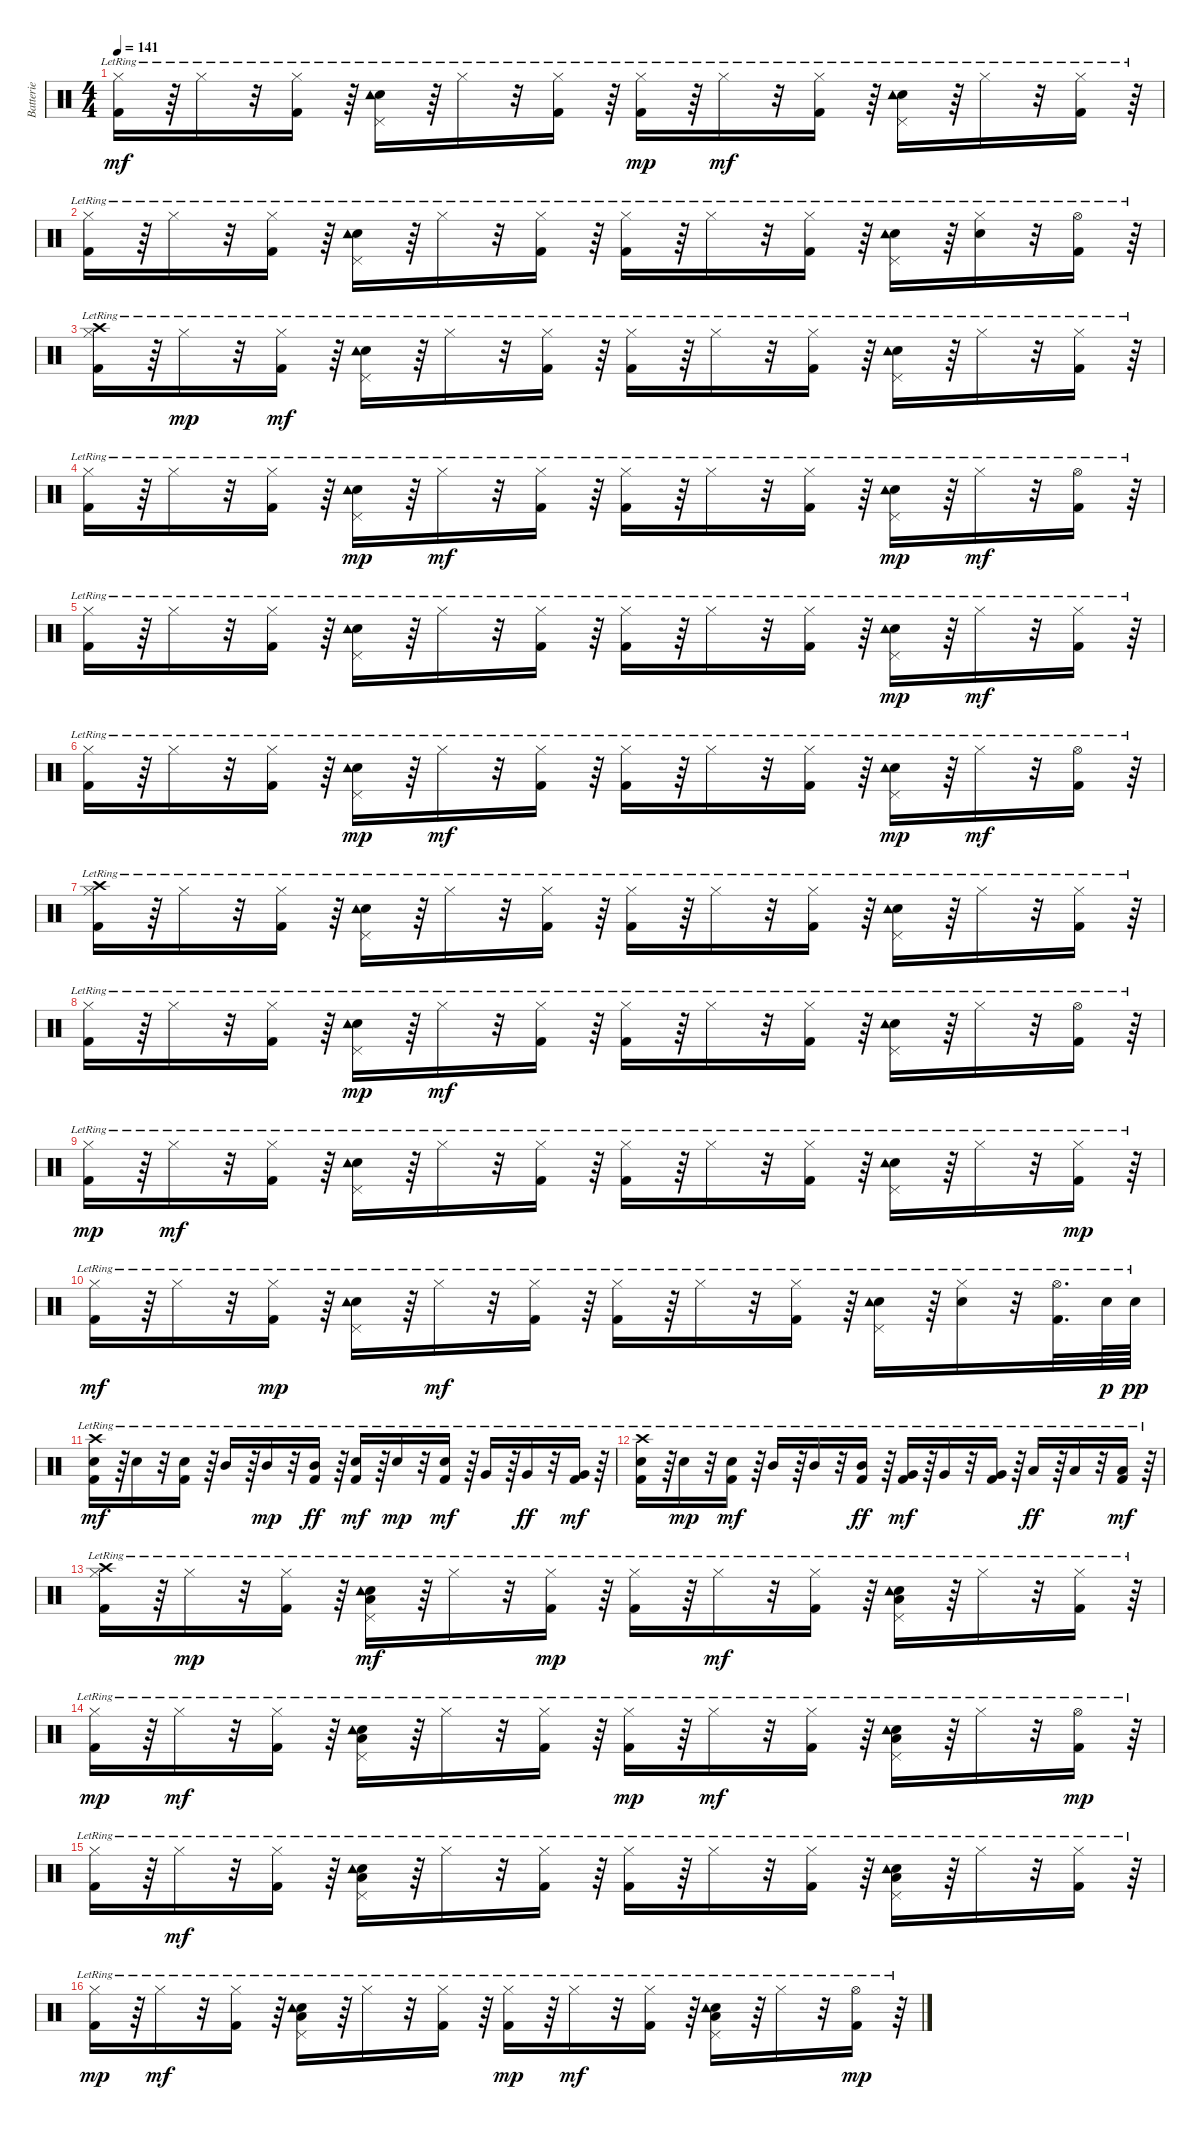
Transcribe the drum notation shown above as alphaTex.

\track ("Batterie" "Batterie") {instrument percussion}
\staff {score}
\articulation defaults
\ts (4 4)
\tempo 141
\clef neutral
\ks c
("Hi-Hat (closed)"{lr} "Kick (hit) 2"{lr}).16{dy mf} r.64 "Hi-Hat (closed)"{lr}.16 r.32 ("Hi-Hat (closed)"{lr} "Kick (hit) 2"{lr}).16 r.64 ("Pedal Hi-Hat (hit)"{lr} "Snare (hit) 2"{lr} "Tambourine (hit)"{lr}).16 r.64 "Hi-Hat (closed)"{lr}.16 r.32 ("Hi-Hat (closed)"{lr} "Kick (hit) 2"{lr}).16 r.64 ("Hi-Hat (closed)"{lr} "Kick (hit) 2"{lr}).16{dy mp} r.64 "Hi-Hat (closed)"{lr}.16{dy mf} r.32 ("Hi-Hat (closed)"{lr} "Kick (hit) 2"{lr}).16 r.64 ("Pedal Hi-Hat (hit)"{lr} "Snare (hit) 2"{lr} "Tambourine (hit)"{lr}).16 r.64 "Hi-Hat (closed)"{lr}.16 r.32 ("Hi-Hat (closed)"{lr} "Kick (hit) 2"{lr}).16 r.64 |
("Hi-Hat (closed)"{lr} "Kick (hit) 2"{lr}).16 r.64 "Hi-Hat (closed)"{lr}.16 r.32 ("Hi-Hat (closed)"{lr} "Kick (hit) 2"{lr}).16 r.64 ("Pedal Hi-Hat (hit)"{lr} "Snare (hit) 2"{lr} "Tambourine (hit)"{lr}).16 r.64 "Hi-Hat (closed)"{lr}.16 r.32 ("Hi-Hat (closed)"{lr} "Kick (hit) 2"{lr}).16 r.64 ("Hi-Hat (closed)"{lr} "Kick (hit) 2"{lr}).16 r.64 "Hi-Hat (closed)"{lr}.16 r.32 ("Hi-Hat (closed)"{lr} "Kick (hit) 2"{lr}).16 r.64 ("Pedal Hi-Hat (hit)"{lr} "Snare (hit) 2"{lr} "Tambourine (hit)"{lr}).16 r.64 ("Hi-Hat (closed)"{lr} "Snare (hit) 2"{lr}).16 r.32 ("Hi-Hat (open)"{lr} "Kick (hit) 2"{lr}).16 r.64 |
("Hi-Hat (closed)"{lr} "Crash high (hit)"{lr} "Kick (hit) 2"{lr}).16 r.64 "Hi-Hat (closed)"{lr}.16{dy mp} r.32 ("Hi-Hat (closed)"{lr} "Kick (hit) 2"{lr}).16{dy mf} r.64 ("Pedal Hi-Hat (hit)"{lr} "Snare (hit) 2"{lr} "Tambourine (hit)"{lr}).16 r.64 "Hi-Hat (closed)"{lr}.16 r.32 ("Hi-Hat (closed)"{lr} "Kick (hit) 2"{lr}).16 r.64 ("Hi-Hat (closed)"{lr} "Kick (hit) 2"{lr}).16 r.64 "Hi-Hat (closed)"{lr}.16 r.32 ("Hi-Hat (closed)"{lr} "Kick (hit) 2"{lr}).16 r.64 ("Pedal Hi-Hat (hit)"{lr} "Snare (hit) 2"{lr} "Tambourine (hit)"{lr}).16 r.64 "Hi-Hat (closed)"{lr}.16 r.32 ("Hi-Hat (closed)"{lr} "Kick (hit) 2"{lr}).16 r.64 |
("Hi-Hat (closed)"{lr} "Kick (hit) 2"{lr}).16 r.64 "Hi-Hat (closed)"{lr}.16 r.32 ("Hi-Hat (closed)"{lr} "Kick (hit) 2"{lr}).16 r.64 ("Pedal Hi-Hat (hit)"{lr} "Snare (hit) 2"{lr} "Tambourine (hit)"{lr}).16{dy mp} r.64 "Hi-Hat (closed)"{lr}.16{dy mf} r.32 ("Hi-Hat (closed)"{lr} "Kick (hit) 2"{lr}).16 r.64 ("Hi-Hat (closed)"{lr} "Kick (hit) 2"{lr}).16 r.64 "Hi-Hat (closed)"{lr}.16 r.32 ("Hi-Hat (closed)"{lr} "Kick (hit) 2"{lr}).16 r.64 ("Pedal Hi-Hat (hit)"{lr} "Snare (hit) 2"{lr} "Tambourine (hit)"{lr}).16{dy mp} r.64 "Hi-Hat (closed)"{lr}.16{dy mf} r.32 ("Hi-Hat (open)"{lr} "Kick (hit) 2"{lr}).16 r.64 |
("Hi-Hat (closed)"{lr} "Kick (hit) 2"{lr}).16 r.64 "Hi-Hat (closed)"{lr}.16 r.32 ("Hi-Hat (closed)"{lr} "Kick (hit) 2"{lr}).16 r.64 ("Pedal Hi-Hat (hit)"{lr} "Snare (hit) 2"{lr} "Tambourine (hit)"{lr}).16 r.64 "Hi-Hat (closed)"{lr}.16 r.32 ("Hi-Hat (closed)"{lr} "Kick (hit) 2"{lr}).16 r.64 ("Hi-Hat (closed)"{lr} "Kick (hit) 2"{lr}).16 r.64 "Hi-Hat (closed)"{lr}.16 r.32 ("Hi-Hat (closed)"{lr} "Kick (hit) 2"{lr}).16 r.64 ("Pedal Hi-Hat (hit)"{lr} "Snare (hit) 2"{lr} "Tambourine (hit)"{lr}).16{dy mp} r.64 "Hi-Hat (closed)"{lr}.16{dy mf} r.32 ("Hi-Hat (closed)"{lr} "Kick (hit) 2"{lr}).16 r.64 |
("Hi-Hat (closed)"{lr} "Kick (hit) 2"{lr}).16 r.64 "Hi-Hat (closed)"{lr}.16 r.32 ("Hi-Hat (closed)"{lr} "Kick (hit) 2"{lr}).16 r.64 ("Pedal Hi-Hat (hit)"{lr} "Snare (hit) 2"{lr} "Tambourine (hit)"{lr}).16{dy mp} r.64 "Hi-Hat (closed)"{lr}.16{dy mf} r.32 ("Hi-Hat (closed)"{lr} "Kick (hit) 2"{lr}).16 r.64 ("Hi-Hat (closed)"{lr} "Kick (hit) 2"{lr}).16 r.64 "Hi-Hat (closed)"{lr}.16 r.32 ("Hi-Hat (closed)"{lr} "Kick (hit) 2"{lr}).16 r.64 ("Pedal Hi-Hat (hit)"{lr} "Snare (hit) 2"{lr} "Tambourine (hit)"{lr}).16{dy mp} r.64 "Hi-Hat (closed)"{lr}.16{dy mf} r.32 ("Hi-Hat (open)"{lr} "Kick (hit) 2"{lr}).16 r.64 |
("Hi-Hat (closed)"{lr} "Crash high (hit)"{lr} "Kick (hit) 2"{lr}).16 r.64 "Hi-Hat (closed)"{lr}.16 r.32 ("Hi-Hat (closed)"{lr} "Kick (hit) 2"{lr}).16 r.64 ("Pedal Hi-Hat (hit)"{lr} "Snare (hit) 2"{lr} "Tambourine (hit)"{lr}).16 r.64 "Hi-Hat (closed)"{lr}.16 r.32 ("Hi-Hat (closed)"{lr} "Kick (hit) 2"{lr}).16 r.64 ("Hi-Hat (closed)"{lr} "Kick (hit) 2"{lr}).16 r.64 "Hi-Hat (closed)"{lr}.16 r.32 ("Hi-Hat (closed)"{lr} "Kick (hit) 2"{lr}).16 r.64 ("Pedal Hi-Hat (hit)"{lr} "Snare (hit) 2"{lr} "Tambourine (hit)"{lr}).16 r.64 "Hi-Hat (closed)"{lr}.16 r.32 ("Hi-Hat (closed)"{lr} "Kick (hit) 2"{lr}).16 r.64 |
("Hi-Hat (closed)"{lr} "Kick (hit) 2"{lr}).16 r.64 "Hi-Hat (closed)"{lr}.16 r.32 ("Hi-Hat (closed)"{lr} "Kick (hit) 2"{lr}).16 r.64 ("Pedal Hi-Hat (hit)"{lr} "Snare (hit) 2"{lr} "Tambourine (hit)"{lr}).16{dy mp} r.64 "Hi-Hat (closed)"{lr}.16{dy mf} r.32 ("Hi-Hat (closed)"{lr} "Kick (hit) 2"{lr}).16 r.64 ("Hi-Hat (closed)"{lr} "Kick (hit) 2"{lr}).16 r.64 "Hi-Hat (closed)"{lr}.16 r.32 ("Hi-Hat (closed)"{lr} "Kick (hit) 2"{lr}).16 r.64 ("Pedal Hi-Hat (hit)"{lr} "Snare (hit) 2"{lr} "Tambourine (hit)"{lr}).16 r.64 "Hi-Hat (closed)"{lr}.16 r.32 ("Hi-Hat (open)"{lr} "Kick (hit) 2"{lr}).16 r.64 |
("Hi-Hat (closed)"{lr} "Kick (hit) 2"{lr}).16{dy mp} r.64 "Hi-Hat (closed)"{lr}.16{dy mf} r.32 ("Hi-Hat (closed)"{lr} "Kick (hit) 2"{lr}).16 r.64 ("Pedal Hi-Hat (hit)"{lr} "Snare (hit) 2"{lr} "Tambourine (hit)"{lr}).16 r.64 "Hi-Hat (closed)"{lr}.16 r.32 ("Hi-Hat (closed)"{lr} "Kick (hit) 2"{lr}).16 r.64 ("Hi-Hat (closed)"{lr} "Kick (hit) 2"{lr}).16 r.64 "Hi-Hat (closed)"{lr}.16 r.32 ("Hi-Hat (closed)"{lr} "Kick (hit) 2"{lr}).16 r.64 ("Pedal Hi-Hat (hit)"{lr} "Snare (hit) 2"{lr} "Tambourine (hit)"{lr}).16 r.64 "Hi-Hat (closed)"{lr}.16 r.32 ("Hi-Hat (closed)"{lr} "Kick (hit) 2"{lr}).16{dy mp} r.64 |
("Hi-Hat (closed)"{lr} "Kick (hit) 2"{lr}).16{dy mf} r.64 "Hi-Hat (closed)"{lr}.16 r.32 ("Hi-Hat (closed)"{lr} "Kick (hit) 2"{lr}).16{dy mp} r.64 ("Pedal Hi-Hat (hit)"{lr} "Snare (hit) 2"{lr} "Tambourine (hit)"{lr}).16 r.64 "Hi-Hat (closed)"{lr}.16{dy mf} r.32 ("Hi-Hat (closed)"{lr} "Kick (hit) 2"{lr}).16 r.64 ("Hi-Hat (closed)"{lr} "Kick (hit) 2"{lr}).16 r.64 "Hi-Hat (closed)"{lr}.16 r.32 ("Hi-Hat (closed)"{lr} "Kick (hit) 2"{lr}).16 r.64 ("Pedal Hi-Hat (hit)"{lr} "Snare (hit) 2"{lr} "Tambourine (hit)"{lr}).16 r.64 ("Hi-Hat (closed)"{lr} "Snare (hit) 2"{lr}).16 r.32 ("Hi-Hat (open)"{lr} "Kick (hit) 2"{lr}).32{d} "Snare (hit) 2"{lr}.64{dy p} "Snare (hit) 2"{lr}.64{dy pp} |
("Crash high (hit)"{lr} "Snare (hit) 2"{lr} "Kick (hit) 2"{lr}).16{dy mf} r.64 "Snare (hit) 2"{lr}.16 r.32 ("Snare (hit) 2"{lr} "Kick (hit) 2"{lr}).16 r.64 "Mid Tom (hit)"{lr}.16 r.64 "Mid Tom (hit)"{lr}.16{dy mp} r.32 ("Kick (hit) 2"{lr} "Mid Tom (hit)"{lr}).16{dy ff} r.64 ("Snare (hit) 2"{lr} "Kick (hit) 2"{lr}).16{dy mf} r.64 "Snare (hit) 2"{lr}.16{dy mp} r.32 ("Snare (hit) 2"{lr} "Kick (hit) 2"{lr}).16{dy mf} r.64 "Very Low Tom (hit)"{lr}.16 r.64 "Very Low Tom (hit)"{lr}.16{dy ff} r.32 ("Very Low Tom (hit)"{lr} "Kick (hit) 2"{lr}).16{dy mf} r.64 |
("Crash high (hit)"{lr} "Snare (hit) 2"{lr} "Kick (hit) 2"{lr}).16 r.64 "Snare (hit) 2"{lr}.16{dy mp} r.32 ("Snare (hit) 2"{lr} "Kick (hit) 2"{lr}).16{dy mf} r.64 "Mid Tom (hit)"{lr}.16 r.64 "Mid Tom (hit)"{lr}.16 r.32 ("Kick (hit) 2"{lr} "Mid Tom (hit)"{lr}).16{dy ff} r.64 ("Very Low Tom (hit)"{lr} "Kick (hit) 2"{lr}).16{dy mf} r.64 "Very Low Tom (hit)"{lr}.16 r.32 ("Very Low Tom (hit)"{lr} "Kick (hit) 2"{lr}).16 r.64 "Low Floor Tom (hit)"{lr}.16{dy ff} r.64 "Low Floor Tom (hit)"{lr}.16 r.32 ("Kick (hit) 2"{lr} "Low Floor Tom (hit)"{lr}).16{dy mf} r.64 |
("Hi-Hat (closed)"{lr} "Crash high (hit)"{lr} "Kick (hit) 2"{lr}).16 r.64 "Hi-Hat (closed)"{lr}.16{dy mp} r.32 ("Hi-Hat (closed)"{lr} "Kick (hit) 2"{lr}).16 r.64 ("Pedal Hi-Hat (hit)"{lr} "Snare (hit) 2"{lr} "Low Floor Tom (hit)"{lr} "Tambourine (hit)"{lr}).16{dy mf} r.64 "Hi-Hat (closed)"{lr}.16 r.32 ("Hi-Hat (closed)"{lr} "Kick (hit) 2"{lr}).16{dy mp} r.64 ("Hi-Hat (closed)"{lr} "Kick (hit) 2"{lr}).16 r.64 "Hi-Hat (closed)"{lr}.16{dy mf} r.32 ("Hi-Hat (closed)"{lr} "Kick (hit) 2"{lr}).16 r.64 ("Pedal Hi-Hat (hit)"{lr} "Snare (hit) 2"{lr} "Low Floor Tom (hit)"{lr} "Tambourine (hit)"{lr}).16 r.64 "Hi-Hat (closed)"{lr}.16 r.32 ("Hi-Hat (closed)"{lr} "Kick (hit) 2"{lr}).16 r.64 |
("Hi-Hat (closed)"{lr} "Kick (hit) 2"{lr}).16{dy mp} r.64 "Hi-Hat (closed)"{lr}.16{dy mf} r.32 ("Hi-Hat (closed)"{lr} "Kick (hit) 2"{lr}).16 r.64 ("Pedal Hi-Hat (hit)"{lr} "Snare (hit) 2"{lr} "Low Floor Tom (hit)"{lr} "Tambourine (hit)"{lr}).16 r.64 "Hi-Hat (closed)"{lr}.16 r.32 ("Hi-Hat (closed)"{lr} "Kick (hit) 2"{lr}).16 r.64 ("Hi-Hat (closed)"{lr} "Kick (hit) 2"{lr}).16{dy mp} r.64 "Hi-Hat (closed)"{lr}.16{dy mf} r.32 ("Hi-Hat (closed)"{lr} "Kick (hit) 2"{lr}).16 r.64 ("Pedal Hi-Hat (hit)"{lr} "Snare (hit) 2"{lr} "Low Floor Tom (hit)"{lr} "Tambourine (hit)"{lr}).16 r.64 "Hi-Hat (closed)"{lr}.16 r.32 ("Hi-Hat (open)"{lr} "Kick (hit) 2"{lr}).16{dy mp} r.64 |
("Hi-Hat (closed)"{lr} "Kick (hit) 2"{lr}).16 r.64 "Hi-Hat (closed)"{lr}.16{dy mf} r.32 ("Hi-Hat (closed)"{lr} "Kick (hit) 2"{lr}).16 r.64 ("Pedal Hi-Hat (hit)"{lr} "Snare (hit) 2"{lr} "Low Floor Tom (hit)"{lr} "Tambourine (hit)"{lr}).16 r.64 "Hi-Hat (closed)"{lr}.16 r.32 ("Hi-Hat (closed)"{lr} "Kick (hit) 2"{lr}).16 r.64 ("Hi-Hat (closed)"{lr} "Kick (hit) 2"{lr}).16 r.64 "Hi-Hat (closed)"{lr}.16 r.32 ("Hi-Hat (closed)"{lr} "Kick (hit) 2"{lr}).16 r.64 ("Pedal Hi-Hat (hit)"{lr} "Snare (hit) 2"{lr} "Low Floor Tom (hit)"{lr} "Tambourine (hit)"{lr}).16 r.64 "Hi-Hat (closed)"{lr}.16 r.32 ("Hi-Hat (closed)"{lr} "Kick (hit) 2"{lr}).16 r.64 |
("Hi-Hat (closed)"{lr} "Kick (hit) 2"{lr}).16{dy mp} r.64 "Hi-Hat (closed)"{lr}.16{dy mf} r.32 ("Hi-Hat (closed)"{lr} "Kick (hit) 2"{lr}).16 r.64 ("Pedal Hi-Hat (hit)"{lr} "Snare (hit) 2"{lr} "Low Floor Tom (hit)"{lr} "Tambourine (hit)"{lr}).16 r.64 "Hi-Hat (closed)"{lr}.16 r.32 ("Hi-Hat (closed)"{lr} "Kick (hit) 2"{lr}).16 r.64 ("Hi-Hat (closed)"{lr} "Kick (hit) 2"{lr}).16{dy mp} r.64 "Hi-Hat (closed)"{lr}.16{dy mf} r.32 ("Hi-Hat (closed)"{lr} "Kick (hit) 2"{lr}).16 r.64 ("Pedal Hi-Hat (hit)"{lr} "Snare (hit) 2"{lr} "Low Floor Tom (hit)"{lr} "Tambourine (hit)"{lr}).16 r.64 "Hi-Hat (closed)"{lr}.16 r.32 ("Hi-Hat (open)"{lr} "Kick (hit) 2"{lr}).16{dy mp} r.64
